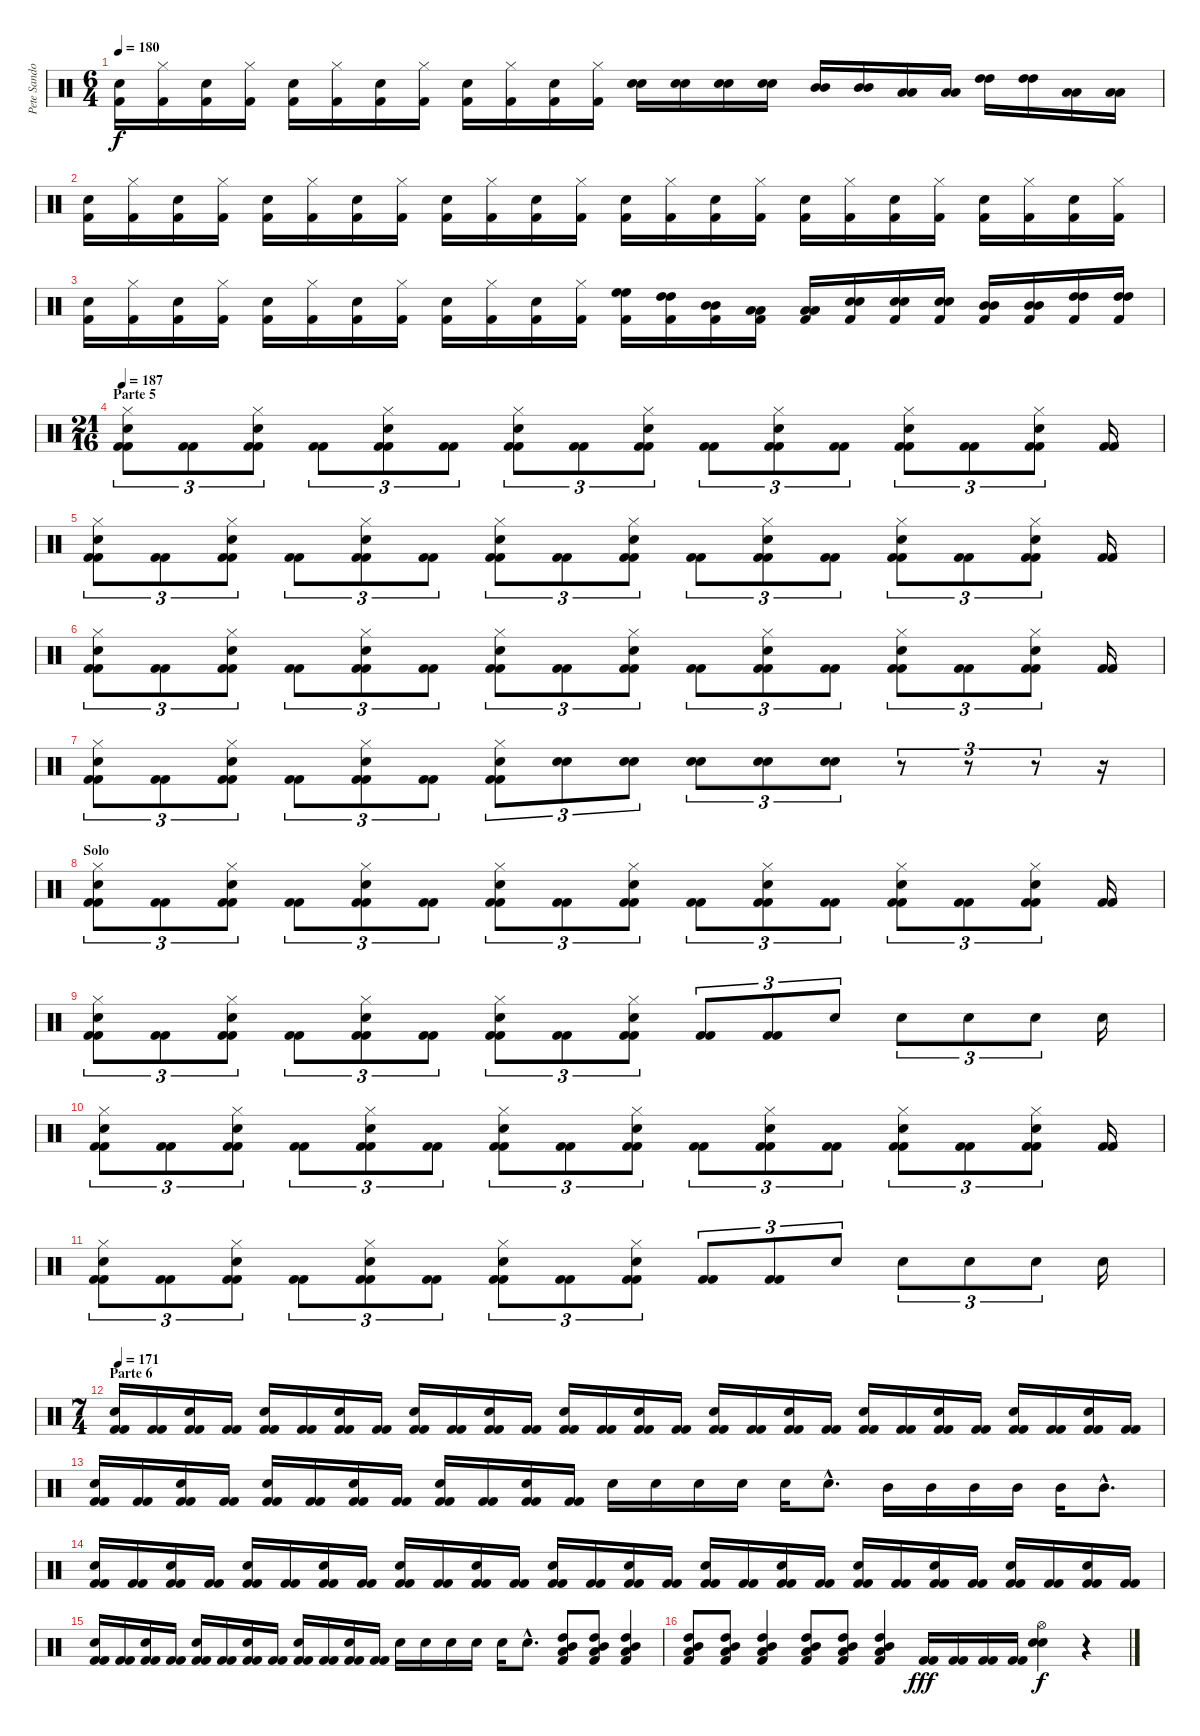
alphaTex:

\track ("Pete Sandoval" "Pete Sando") {instrument percussion}
\staff {score}
\articulation defaults
\ts (6 4)
\tempo 180
\clef neutral
\ks c
("Snare (hit) 2" "Kick (hit) 2").16{dy f} ("Hi-Hat (closed)" "Kick (hit) 2").16 ("Snare (hit) 2" "Kick (hit) 2").16 ("Hi-Hat (closed)" "Kick (hit) 2").16 ("Snare (hit) 2" "Kick (hit) 2").16 ("Hi-Hat (closed)" "Kick (hit) 2").16 ("Snare (hit) 2" "Kick (hit) 2").16 ("Hi-Hat (closed)" "Kick (hit) 2").16 ("Snare (hit) 2" "Kick (hit) 2").16 ("Hi-Hat (closed)" "Kick (hit) 2").16 ("Snare (hit) 2" "Kick (hit) 2").16 ("Hi-Hat (closed)" "Kick (hit) 2").16 ("Electric Snare (hit)" "Electric Snare (hit)").16 ("Electric Snare (hit)" "Electric Snare (hit)").16 ("Electric Snare (hit)" "Electric Snare (hit)").16 ("Electric Snare (hit)" "Electric Snare (hit)").16 ("Mid Tom (hit)" "Mid Tom (hit)").16 ("Mid Tom (hit)" "Mid Tom (hit)").16 ("Low Tom (hit)" "Low Tom (hit)").16 ("Low Tom (hit)" "Low Tom (hit)").16 ("High Tom (hit)" "High Tom (hit)").16 ("High Tom (hit)" "High Tom (hit)").16 ("Low Floor Tom (hit)" "Low Floor Tom (hit)").16 ("Low Floor Tom (hit)" "Low Floor Tom (hit)").16 |
("Snare (hit) 2" "Kick (hit) 2").16 ("Hi-Hat (closed)" "Kick (hit) 2").16 ("Snare (hit) 2" "Kick (hit) 2").16 ("Hi-Hat (closed)" "Kick (hit) 2").16 ("Snare (hit) 2" "Kick (hit) 2").16 ("Hi-Hat (closed)" "Kick (hit) 2").16 ("Snare (hit) 2" "Kick (hit) 2").16 ("Hi-Hat (closed)" "Kick (hit) 2").16 ("Snare (hit) 2" "Kick (hit) 2").16 ("Hi-Hat (closed)" "Kick (hit) 2").16 ("Snare (hit) 2" "Kick (hit) 2").16 ("Hi-Hat (closed)" "Kick (hit) 2").16 ("Snare (hit) 2" "Kick (hit) 2").16 ("Hi-Hat (closed)" "Kick (hit) 2").16 ("Snare (hit) 2" "Kick (hit) 2").16 ("Hi-Hat (closed)" "Kick (hit) 2").16 ("Snare (hit) 2" "Kick (hit) 2").16 ("Hi-Hat (closed)" "Kick (hit) 2").16 ("Snare (hit) 2" "Kick (hit) 2").16 ("Hi-Hat (closed)" "Kick (hit) 2").16 ("Snare (hit) 2" "Kick (hit) 2").16 ("Hi-Hat (closed)" "Kick (hit) 2").16 ("Snare (hit) 2" "Kick (hit) 2").16 ("Hi-Hat (closed)" "Kick (hit) 2").16 |
("Snare (hit) 2" "Kick (hit) 2").16 ("Hi-Hat (closed)" "Kick (hit) 2").16 ("Snare (hit) 2" "Kick (hit) 2").16 ("Hi-Hat (closed)" "Kick (hit) 2").16 ("Snare (hit) 2" "Kick (hit) 2").16 ("Hi-Hat (closed)" "Kick (hit) 2").16 ("Snare (hit) 2" "Kick (hit) 2").16 ("Hi-Hat (closed)" "Kick (hit) 2").16 ("Snare (hit) 2" "Kick (hit) 2").16 ("Hi-Hat (closed)" "Kick (hit) 2").16 ("Snare (hit) 2" "Kick (hit) 2").16 ("Hi-Hat (closed)" "Kick (hit) 2").16 ("High Floor Tom (hit)" "High Floor Tom (hit)" "Kick (hit) 2").16 ("High Tom (hit)" "High Tom (hit)" "Kick (hit) 2").16 ("Mid Tom (hit)" "Mid Tom (hit)" "Kick (hit) 2").16 ("Low Tom (hit)" "Low Tom (hit)" "Kick (hit) 2").16 ("Low Floor Tom (hit)" "Low Floor Tom (hit)" "Kick (hit) 2").16 ("Electric Snare (hit)" "Electric Snare (hit)" "Kick (hit) 2").16 ("Electric Snare (hit)" "Electric Snare (hit)" "Kick (hit) 2").16 ("Electric Snare (hit)" "Electric Snare (hit)" "Kick (hit) 2").16 ("Mid Tom (hit)" "Mid Tom (hit)" "Kick (hit) 2").16 ("Mid Tom (hit)" "Mid Tom (hit)" "Kick (hit) 2").16 ("High Tom (hit)" "High Tom (hit)" "Kick (hit) 2").16 ("High Tom (hit)" "High Tom (hit)" "Kick (hit) 2").16 |
\ts (21 16)
\section ("" "Parte 5")
\tempo 147
\tempo 187
("Hi-Hat (closed)" "Snare (hit) 2" "Kick (hit) 2" "Kick (hit) 2").8{tu (3 2)} ("Kick (hit) 2" "Kick (hit) 2").8{tu (3 2)} ("Hi-Hat (closed)" "Snare (hit) 2" "Kick (hit) 2" "Kick (hit) 2").8{tu (3 2)} ("Kick (hit) 2" "Kick (hit) 2").8{tu (3 2)} ("Hi-Hat (closed)" "Snare (hit) 2" "Kick (hit) 2" "Kick (hit) 2").8{tu (3 2)} ("Kick (hit) 2" "Kick (hit) 2").8{tu (3 2)} ("Hi-Hat (closed)" "Snare (hit) 2" "Kick (hit) 2" "Kick (hit) 2").8{tu (3 2)} ("Kick (hit) 2" "Kick (hit) 2").8{tu (3 2)} ("Hi-Hat (closed)" "Snare (hit) 2" "Kick (hit) 2" "Kick (hit) 2").8{tu (3 2)} ("Kick (hit) 2" "Kick (hit) 2").8{tu (3 2)} ("Hi-Hat (closed)" "Snare (hit) 2" "Kick (hit) 2" "Kick (hit) 2").8{tu (3 2)} ("Kick (hit) 2" "Kick (hit) 2").8{tu (3 2)} ("Hi-Hat (closed)" "Snare (hit) 2" "Kick (hit) 2" "Kick (hit) 2").8{tu (3 2)} ("Kick (hit) 2" "Kick (hit) 2").8{tu (3 2)} ("Hi-Hat (closed)" "Snare (hit) 2" "Kick (hit) 2" "Kick (hit) 2").8{tu (3 2)} ("Kick (hit) 2" "Kick (hit) 2").16 |
("Hi-Hat (closed)" "Snare (hit) 2" "Kick (hit) 2" "Kick (hit) 2").8{tu (3 2)} ("Kick (hit) 2" "Kick (hit) 2").8{tu (3 2)} ("Hi-Hat (closed)" "Snare (hit) 2" "Kick (hit) 2" "Kick (hit) 2").8{tu (3 2)} ("Kick (hit) 2" "Kick (hit) 2").8{tu (3 2)} ("Hi-Hat (closed)" "Snare (hit) 2" "Kick (hit) 2" "Kick (hit) 2").8{tu (3 2)} ("Kick (hit) 2" "Kick (hit) 2").8{tu (3 2)} ("Hi-Hat (closed)" "Snare (hit) 2" "Kick (hit) 2" "Kick (hit) 2").8{tu (3 2)} ("Kick (hit) 2" "Kick (hit) 2").8{tu (3 2)} ("Hi-Hat (closed)" "Snare (hit) 2" "Kick (hit) 2" "Kick (hit) 2").8{tu (3 2)} ("Kick (hit) 2" "Kick (hit) 2").8{tu (3 2)} ("Hi-Hat (closed)" "Snare (hit) 2" "Kick (hit) 2" "Kick (hit) 2").8{tu (3 2)} ("Kick (hit) 2" "Kick (hit) 2").8{tu (3 2)} ("Hi-Hat (closed)" "Snare (hit) 2" "Kick (hit) 2" "Kick (hit) 2").8{tu (3 2)} ("Kick (hit) 2" "Kick (hit) 2").8{tu (3 2)} ("Hi-Hat (closed)" "Snare (hit) 2" "Kick (hit) 2" "Kick (hit) 2").8{tu (3 2)} ("Kick (hit) 2" "Kick (hit) 2").16 |
("Hi-Hat (closed)" "Snare (hit) 2" "Kick (hit) 2" "Kick (hit) 2").8{tu (3 2)} ("Kick (hit) 2" "Kick (hit) 2").8{tu (3 2)} ("Hi-Hat (closed)" "Snare (hit) 2" "Kick (hit) 2" "Kick (hit) 2").8{tu (3 2)} ("Kick (hit) 2" "Kick (hit) 2").8{tu (3 2)} ("Hi-Hat (closed)" "Snare (hit) 2" "Kick (hit) 2" "Kick (hit) 2").8{tu (3 2)} ("Kick (hit) 2" "Kick (hit) 2").8{tu (3 2)} ("Hi-Hat (closed)" "Snare (hit) 2" "Kick (hit) 2" "Kick (hit) 2").8{tu (3 2)} ("Kick (hit) 2" "Kick (hit) 2").8{tu (3 2)} ("Hi-Hat (closed)" "Snare (hit) 2" "Kick (hit) 2" "Kick (hit) 2").8{tu (3 2)} ("Kick (hit) 2" "Kick (hit) 2").8{tu (3 2)} ("Hi-Hat (closed)" "Snare (hit) 2" "Kick (hit) 2" "Kick (hit) 2").8{tu (3 2)} ("Kick (hit) 2" "Kick (hit) 2").8{tu (3 2)} ("Hi-Hat (closed)" "Snare (hit) 2" "Kick (hit) 2" "Kick (hit) 2").8{tu (3 2)} ("Kick (hit) 2" "Kick (hit) 2").8{tu (3 2)} ("Hi-Hat (closed)" "Snare (hit) 2" "Kick (hit) 2" "Kick (hit) 2").8{tu (3 2)} ("Kick (hit) 2" "Kick (hit) 2").16 |
("Hi-Hat (closed)" "Snare (hit) 2" "Kick (hit) 2" "Kick (hit) 2").8{tu (3 2)} ("Kick (hit) 2" "Kick (hit) 2").8{tu (3 2)} ("Hi-Hat (closed)" "Snare (hit) 2" "Kick (hit) 2" "Kick (hit) 2").8{tu (3 2)} ("Kick (hit) 2" "Kick (hit) 2").8{tu (3 2)} ("Hi-Hat (closed)" "Snare (hit) 2" "Kick (hit) 2" "Kick (hit) 2").8{tu (3 2)} ("Kick (hit) 2" "Kick (hit) 2").8{tu (3 2)} ("Hi-Hat (closed)" "Snare (hit) 2" "Kick (hit) 2" "Kick (hit) 2").8{tu (3 2)} ("Snare (hit) 2" "Snare (hit) 2").8{tu (3 2)} ("Snare (hit) 2" "Snare (hit) 2").8{tu (3 2)} ("Snare (hit) 2" "Snare (hit) 2").8{tu (3 2)} ("Snare (hit) 2" "Snare (hit) 2").8{tu (3 2)} ("Snare (hit) 2" "Snare (hit) 2").8{tu (3 2)} r.8{tu (3 2)} r.8{tu (3 2)} r.8{tu (3 2)} r.16 |
\section ("" "Solo")
("Hi-Hat (closed)" "Snare (hit) 2" "Kick (hit) 2" "Kick (hit) 2").8{tu (3 2)} ("Kick (hit) 2" "Kick (hit) 2").8{tu (3 2)} ("Hi-Hat (closed)" "Snare (hit) 2" "Kick (hit) 2" "Kick (hit) 2").8{tu (3 2)} ("Kick (hit) 2" "Kick (hit) 2").8{tu (3 2)} ("Hi-Hat (closed)" "Snare (hit) 2" "Kick (hit) 2" "Kick (hit) 2").8{tu (3 2)} ("Kick (hit) 2" "Kick (hit) 2").8{tu (3 2)} ("Hi-Hat (closed)" "Snare (hit) 2" "Kick (hit) 2" "Kick (hit) 2").8{tu (3 2)} ("Kick (hit) 2" "Kick (hit) 2").8{tu (3 2)} ("Hi-Hat (closed)" "Snare (hit) 2" "Kick (hit) 2" "Kick (hit) 2").8{tu (3 2)} ("Kick (hit) 2" "Kick (hit) 2").8{tu (3 2)} ("Hi-Hat (closed)" "Snare (hit) 2" "Kick (hit) 2" "Kick (hit) 2").8{tu (3 2)} ("Kick (hit) 2" "Kick (hit) 2").8{tu (3 2)} ("Hi-Hat (closed)" "Snare (hit) 2" "Kick (hit) 2" "Kick (hit) 2").8{tu (3 2)} ("Kick (hit) 2" "Kick (hit) 2").8{tu (3 2)} ("Hi-Hat (closed)" "Snare (hit) 2" "Kick (hit) 2" "Kick (hit) 2").8{tu (3 2)} ("Kick (hit) 2" "Kick (hit) 2").16 |
("Hi-Hat (closed)" "Snare (hit) 2" "Kick (hit) 2" "Kick (hit) 2").8{tu (3 2)} ("Kick (hit) 2" "Kick (hit) 2").8{tu (3 2)} ("Hi-Hat (closed)" "Snare (hit) 2" "Kick (hit) 2" "Kick (hit) 2").8{tu (3 2)} ("Kick (hit) 2" "Kick (hit) 2").8{tu (3 2)} ("Hi-Hat (closed)" "Snare (hit) 2" "Kick (hit) 2" "Kick (hit) 2").8{tu (3 2)} ("Kick (hit) 2" "Kick (hit) 2").8{tu (3 2)} ("Hi-Hat (closed)" "Snare (hit) 2" "Kick (hit) 2" "Kick (hit) 2").8{tu (3 2)} ("Kick (hit) 2" "Kick (hit) 2").8{tu (3 2)} ("Hi-Hat (closed)" "Snare (hit) 2" "Kick (hit) 2" "Kick (hit) 2").8{tu (3 2)} ("Kick (hit) 2" "Kick (hit) 2").8{tu (3 2)} ("Kick (hit) 2" "Kick (hit) 2").8{tu (3 2)} "Snare (hit) 2".8{tu (3 2)} "Snare (hit) 2".8{tu (3 2)} "Snare (hit) 2".8{tu (3 2)} "Snare (hit) 2".8{tu (3 2)} "Snare (hit) 2".16 |
("Hi-Hat (closed)" "Snare (hit) 2" "Kick (hit) 2" "Kick (hit) 2").8{tu (3 2)} ("Kick (hit) 2" "Kick (hit) 2").8{tu (3 2)} ("Hi-Hat (closed)" "Snare (hit) 2" "Kick (hit) 2" "Kick (hit) 2").8{tu (3 2)} ("Kick (hit) 2" "Kick (hit) 2").8{tu (3 2)} ("Hi-Hat (closed)" "Snare (hit) 2" "Kick (hit) 2" "Kick (hit) 2").8{tu (3 2)} ("Kick (hit) 2" "Kick (hit) 2").8{tu (3 2)} ("Hi-Hat (closed)" "Snare (hit) 2" "Kick (hit) 2" "Kick (hit) 2").8{tu (3 2)} ("Kick (hit) 2" "Kick (hit) 2").8{tu (3 2)} ("Hi-Hat (closed)" "Snare (hit) 2" "Kick (hit) 2" "Kick (hit) 2").8{tu (3 2)} ("Kick (hit) 2" "Kick (hit) 2").8{tu (3 2)} ("Hi-Hat (closed)" "Snare (hit) 2" "Kick (hit) 2" "Kick (hit) 2").8{tu (3 2)} ("Kick (hit) 2" "Kick (hit) 2").8{tu (3 2)} ("Hi-Hat (closed)" "Snare (hit) 2" "Kick (hit) 2" "Kick (hit) 2").8{tu (3 2)} ("Kick (hit) 2" "Kick (hit) 2").8{tu (3 2)} ("Hi-Hat (closed)" "Snare (hit) 2" "Kick (hit) 2" "Kick (hit) 2").8{tu (3 2)} ("Kick (hit) 2" "Kick (hit) 2").16 |
("Hi-Hat (closed)" "Snare (hit) 2" "Kick (hit) 2" "Kick (hit) 2").8{tu (3 2)} ("Kick (hit) 2" "Kick (hit) 2").8{tu (3 2)} ("Hi-Hat (closed)" "Snare (hit) 2" "Kick (hit) 2" "Kick (hit) 2").8{tu (3 2)} ("Kick (hit) 2" "Kick (hit) 2").8{tu (3 2)} ("Hi-Hat (closed)" "Snare (hit) 2" "Kick (hit) 2" "Kick (hit) 2").8{tu (3 2)} ("Kick (hit) 2" "Kick (hit) 2").8{tu (3 2)} ("Hi-Hat (closed)" "Snare (hit) 2" "Kick (hit) 2" "Kick (hit) 2").8{tu (3 2)} ("Kick (hit) 2" "Kick (hit) 2").8{tu (3 2)} ("Hi-Hat (closed)" "Snare (hit) 2" "Kick (hit) 2" "Kick (hit) 2").8{tu (3 2)} ("Kick (hit) 2" "Kick (hit) 2").8{tu (3 2)} ("Kick (hit) 2" "Kick (hit) 2").8{tu (3 2)} "Snare (hit) 2".8{tu (3 2)} "Snare (hit) 2".8{tu (3 2)} "Snare (hit) 2".8{tu (3 2)} "Snare (hit) 2".8{tu (3 2)} "Snare (hit) 2".16 |
\ts (7 4)
\section ("" "Parte 6")
\tempo 171
("Snare (hit) 2" "Kick (hit) 2" "Kick (hit) 2").16 ("Kick (hit) 2" "Kick (hit) 2").16 ("Snare (hit) 2" "Kick (hit) 2" "Kick (hit) 2").16 ("Kick (hit) 2" "Kick (hit) 2").16 ("Snare (hit) 2" "Kick (hit) 2" "Kick (hit) 2").16 ("Kick (hit) 2" "Kick (hit) 2").16 ("Snare (hit) 2" "Kick (hit) 2" "Kick (hit) 2").16 ("Kick (hit) 2" "Kick (hit) 2").16 ("Snare (hit) 2" "Kick (hit) 2" "Kick (hit) 2").16 ("Kick (hit) 2" "Kick (hit) 2").16 ("Snare (hit) 2" "Kick (hit) 2" "Kick (hit) 2").16 ("Kick (hit) 2" "Kick (hit) 2").16 ("Snare (hit) 2" "Kick (hit) 2" "Kick (hit) 2").16 ("Kick (hit) 2" "Kick (hit) 2").16 ("Snare (hit) 2" "Kick (hit) 2" "Kick (hit) 2").16 ("Kick (hit) 2" "Kick (hit) 2").16 ("Snare (hit) 2" "Kick (hit) 2" "Kick (hit) 2").16 ("Kick (hit) 2" "Kick (hit) 2").16 ("Snare (hit) 2" "Kick (hit) 2" "Kick (hit) 2").16 ("Kick (hit) 2" "Kick (hit) 2").16 ("Snare (hit) 2" "Kick (hit) 2" "Kick (hit) 2").16 ("Kick (hit) 2" "Kick (hit) 2").16 ("Snare (hit) 2" "Kick (hit) 2" "Kick (hit) 2").16 ("Kick (hit) 2" "Kick (hit) 2").16 ("Snare (hit) 2" "Kick (hit) 2" "Kick (hit) 2").16 ("Kick (hit) 2" "Kick (hit) 2").16 ("Snare (hit) 2" "Kick (hit) 2" "Kick (hit) 2").16 ("Kick (hit) 2" "Kick (hit) 2").16 |
("Snare (hit) 2" "Kick (hit) 2" "Kick (hit) 2").16 ("Kick (hit) 2" "Kick (hit) 2").16 ("Snare (hit) 2" "Kick (hit) 2" "Kick (hit) 2").16 ("Kick (hit) 2" "Kick (hit) 2").16 ("Snare (hit) 2" "Kick (hit) 2" "Kick (hit) 2").16 ("Kick (hit) 2" "Kick (hit) 2").16 ("Snare (hit) 2" "Kick (hit) 2" "Kick (hit) 2").16 ("Kick (hit) 2" "Kick (hit) 2").16 ("Snare (hit) 2" "Kick (hit) 2" "Kick (hit) 2").16 ("Kick (hit) 2" "Kick (hit) 2").16 ("Snare (hit) 2" "Kick (hit) 2" "Kick (hit) 2").16 ("Kick (hit) 2" "Kick (hit) 2").16 "Snare (hit) 2".16 "Snare (hit) 2".16 "Snare (hit) 2".16 "Snare (hit) 2".16 "Snare (hit) 2".16 "Snare (hit) 2"{hac}.8{d} "Mid Tom (hit)".16 "Mid Tom (hit)".16 "Mid Tom (hit)".16 "Mid Tom (hit)".16 "Mid Tom (hit)".16 "Mid Tom (hit)"{hac}.8{d} |
("Snare (hit) 2" "Kick (hit) 2" "Kick (hit) 2").16 ("Kick (hit) 2" "Kick (hit) 2").16 ("Snare (hit) 2" "Kick (hit) 2" "Kick (hit) 2").16 ("Kick (hit) 2" "Kick (hit) 2").16 ("Snare (hit) 2" "Kick (hit) 2" "Kick (hit) 2").16 ("Kick (hit) 2" "Kick (hit) 2").16 ("Snare (hit) 2" "Kick (hit) 2" "Kick (hit) 2").16 ("Kick (hit) 2" "Kick (hit) 2").16 ("Snare (hit) 2" "Kick (hit) 2" "Kick (hit) 2").16 ("Kick (hit) 2" "Kick (hit) 2").16 ("Snare (hit) 2" "Kick (hit) 2" "Kick (hit) 2").16 ("Kick (hit) 2" "Kick (hit) 2").16 ("Snare (hit) 2" "Kick (hit) 2" "Kick (hit) 2").16 ("Kick (hit) 2" "Kick (hit) 2").16 ("Snare (hit) 2" "Kick (hit) 2" "Kick (hit) 2").16 ("Kick (hit) 2" "Kick (hit) 2").16 ("Snare (hit) 2" "Kick (hit) 2" "Kick (hit) 2").16 ("Kick (hit) 2" "Kick (hit) 2").16 ("Snare (hit) 2" "Kick (hit) 2" "Kick (hit) 2").16 ("Kick (hit) 2" "Kick (hit) 2").16 ("Snare (hit) 2" "Kick (hit) 2" "Kick (hit) 2").16 ("Kick (hit) 2" "Kick (hit) 2").16 ("Snare (hit) 2" "Kick (hit) 2" "Kick (hit) 2").16 ("Kick (hit) 2" "Kick (hit) 2").16 ("Snare (hit) 2" "Kick (hit) 2" "Kick (hit) 2").16 ("Kick (hit) 2" "Kick (hit) 2").16 ("Snare (hit) 2" "Kick (hit) 2" "Kick (hit) 2").16 ("Kick (hit) 2" "Kick (hit) 2").16 |
("Snare (hit) 2" "Kick (hit) 2" "Kick (hit) 2").16 ("Kick (hit) 2" "Kick (hit) 2").16 ("Snare (hit) 2" "Kick (hit) 2" "Kick (hit) 2").16 ("Kick (hit) 2" "Kick (hit) 2").16 ("Snare (hit) 2" "Kick (hit) 2" "Kick (hit) 2").16 ("Kick (hit) 2" "Kick (hit) 2").16 ("Snare (hit) 2" "Kick (hit) 2" "Kick (hit) 2").16 ("Kick (hit) 2" "Kick (hit) 2").16 ("Snare (hit) 2" "Kick (hit) 2" "Kick (hit) 2").16 ("Kick (hit) 2" "Kick (hit) 2").16 ("Snare (hit) 2" "Kick (hit) 2" "Kick (hit) 2").16 ("Kick (hit) 2" "Kick (hit) 2").16 "Snare (hit) 2".16 "Snare (hit) 2".16 "Snare (hit) 2".16 "Snare (hit) 2".16 "Snare (hit) 2".16 "Snare (hit) 2"{hac}.8{d} ("High Tom (hit)" "Low Tom (hit)" "Mid Tom (hit)" "Kick (hit) 2").8 ("High Tom (hit)" "Low Tom (hit)" "Mid Tom (hit)" "Kick (hit) 2").8 ("High Tom (hit)" "Low Tom (hit)" "Mid Tom (hit)" "Kick (hit) 2").4 |
("High Tom (hit)" "Low Tom (hit)" "Mid Tom (hit)" "Kick (hit) 2").8 ("High Tom (hit)" "Low Tom (hit)" "Mid Tom (hit)" "Kick (hit) 2").8 ("High Tom (hit)" "Low Tom (hit)" "Mid Tom (hit)" "Kick (hit) 2").4 ("High Tom (hit)" "Low Tom (hit)" "Mid Tom (hit)" "Kick (hit) 2").8 ("High Tom (hit)" "Low Tom (hit)" "Mid Tom (hit)" "Kick (hit) 2").8 ("High Tom (hit)" "Low Tom (hit)" "Mid Tom (hit)" "Kick (hit) 2").4 ("Kick (hit) 2" "Kick (hit) 2").16{dy fff} ("Kick (hit) 2" "Kick (hit) 2").16 ("Kick (hit) 2" "Kick (hit) 2").16 ("Kick (hit) 2" "Kick (hit) 2").16 ("Hi-Hat (open)" "Snare (hit) 2" "Snare (hit) 2").4{dy f} r.4
